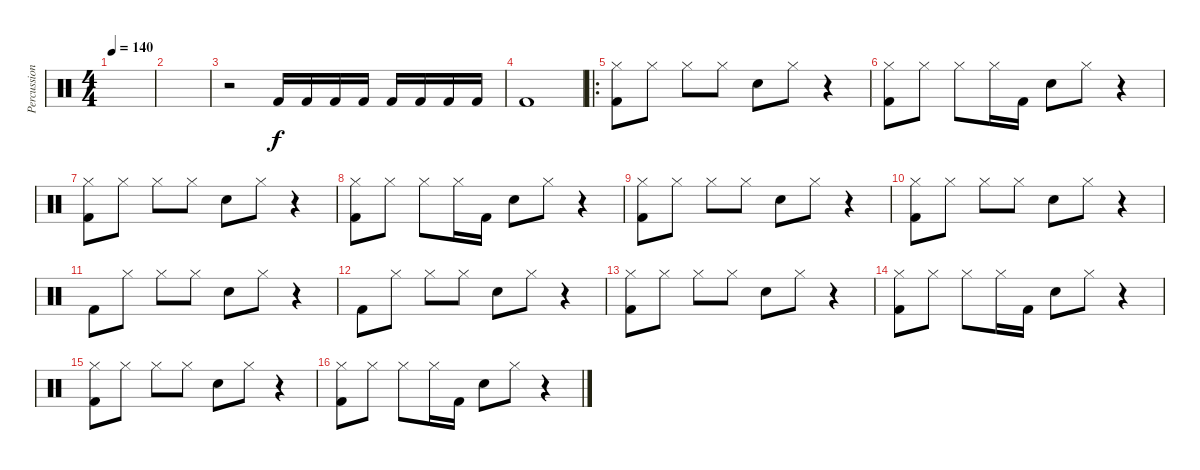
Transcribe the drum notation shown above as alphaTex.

\track ("Percussion" "Percussion") {instrument percussion}
\staff {score}
\articulation defaults
\ts (4 4)
\tempo 140
\clef neutral
\ks c
|
|
r.2 "Kick (hit) 2".16 "Kick (hit) 2".16 "Kick (hit) 2".16 "Kick (hit) 2".16 "Kick (hit) 2".16 "Kick (hit) 2".16 "Kick (hit) 2".16 "Kick (hit) 2".16 |
"Kick (hit) 2".1 |
\ro
("Hi-Hat (closed)" "Kick (hit) 2").8 "Hi-Hat (closed)".8 "Hi-Hat (closed)".8 "Hi-Hat (closed)".8 "Snare (hit) 2".8 "Hi-Hat (closed)".8 r.4 |
("Hi-Hat (closed)" "Kick (hit) 2").8 "Hi-Hat (closed)".8 "Hi-Hat (closed)".8 "Hi-Hat (closed)".16 "Kick (hit) 2".16 "Snare (hit) 2".8 "Hi-Hat (closed)".8 r.4 |
("Hi-Hat (closed)" "Kick (hit) 2").8 "Hi-Hat (closed)".8 "Hi-Hat (closed)".8 "Hi-Hat (closed)".8 "Snare (hit) 2".8 "Hi-Hat (closed)".8 r.4 |
("Hi-Hat (closed)" "Kick (hit) 2").8 "Hi-Hat (closed)".8 "Hi-Hat (closed)".8 "Hi-Hat (closed)".16 "Kick (hit) 2".16 "Snare (hit) 2".8 "Hi-Hat (closed)".8 r.4 |
("Hi-Hat (closed)" "Kick (hit) 2").8 "Hi-Hat (closed)".8 "Hi-Hat (closed)".8 "Hi-Hat (closed)".8 "Snare (hit) 2".8 "Hi-Hat (closed)".8 r.4 |
("Hi-Hat (closed)" "Kick (hit) 2").8 "Hi-Hat (closed)".8 "Hi-Hat (closed)".8 "Hi-Hat (closed)".8 "Snare (hit) 2".8 "Hi-Hat (closed)".8 r.4 |
"Kick (hit) 2".8 "Hi-Hat (closed)".8 "Hi-Hat (closed)".8 "Hi-Hat (closed)".8 "Snare (hit) 2".8 "Hi-Hat (closed)".8 r.4 |
"Kick (hit) 2".8 "Hi-Hat (closed)".8 "Hi-Hat (closed)".8 "Hi-Hat (closed)".8 "Snare (hit) 2".8 "Hi-Hat (closed)".8 r.4 |
("Hi-Hat (closed)" "Kick (hit) 2").8 "Hi-Hat (closed)".8 "Hi-Hat (closed)".8 "Hi-Hat (closed)".8 "Snare (hit) 2".8 "Hi-Hat (closed)".8 r.4 |
("Hi-Hat (closed)" "Kick (hit) 2").8 "Hi-Hat (closed)".8 "Hi-Hat (closed)".8 "Hi-Hat (closed)".16 "Kick (hit) 2".16 "Snare (hit) 2".8 "Hi-Hat (closed)".8 r.4 |
("Hi-Hat (closed)" "Kick (hit) 2").8 "Hi-Hat (closed)".8 "Hi-Hat (closed)".8 "Hi-Hat (closed)".8 "Snare (hit) 2".8 "Hi-Hat (closed)".8 r.4 |
("Hi-Hat (closed)" "Kick (hit) 2").8 "Hi-Hat (closed)".8 "Hi-Hat (closed)".8 "Hi-Hat (closed)".16 "Kick (hit) 2".16 "Snare (hit) 2".8 "Hi-Hat (closed)".8 r.4
